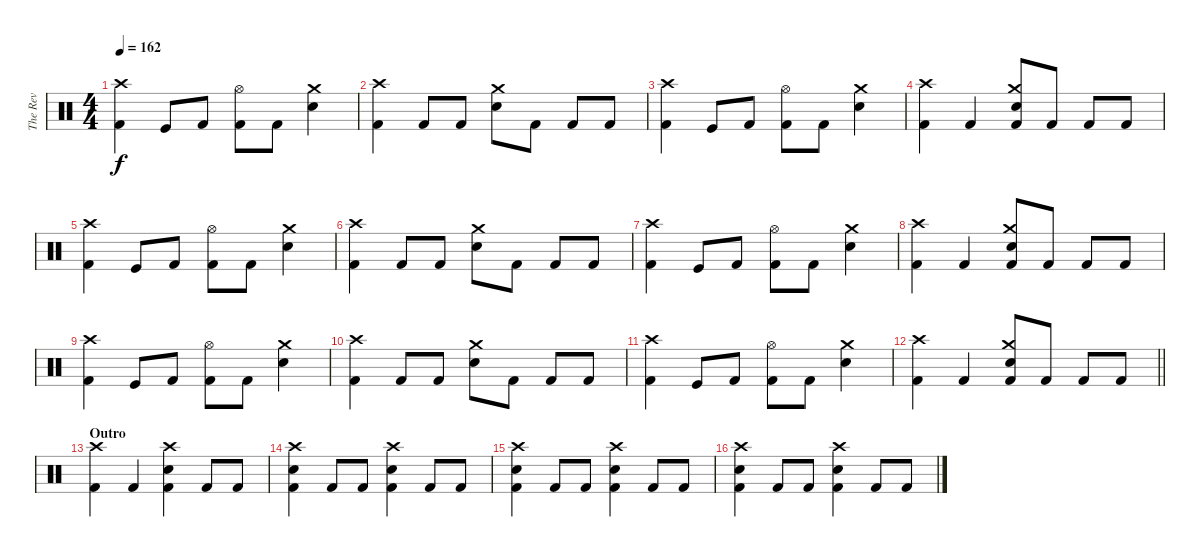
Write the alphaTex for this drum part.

\track ("The Rev" "The Rev") {instrument percussion}
\staff {score}
\articulation defaults
\ts (4 4)
\tempo 162
\clef neutral
\ks c
("Crash high (hit)" "Kick (hit) 2").4{dy f} "Kick (hit)".8 "Kick (hit) 2".8 ("Hi-Hat (open)" "Kick (hit) 2").8 "Kick (hit) 2".8 ("Crash medium (hit)" "Electric Snare (hit)").4 |
("Crash high (hit)" "Kick (hit) 2").4 "Kick (hit) 2".8 "Kick (hit) 2".8 ("Crash medium (hit)" "Electric Snare (hit)").8 "Kick (hit) 2".8 "Kick (hit) 2".8 "Kick (hit) 2".8 |
("Crash high (hit)" "Kick (hit) 2").4 "Kick (hit)".8 "Kick (hit) 2".8 ("Hi-Hat (open)" "Kick (hit) 2").8 "Kick (hit) 2".8 ("Crash medium (hit)" "Electric Snare (hit)").4 |
("Crash high (hit)" "Kick (hit) 2").4 "Kick (hit) 2".4 ("Crash medium (hit)" "Electric Snare (hit)" "Kick (hit) 2").8 "Kick (hit) 2".8 "Kick (hit) 2".8 "Kick (hit) 2".8 |
("Crash high (hit)" "Kick (hit) 2").4 "Kick (hit)".8 "Kick (hit) 2".8 ("Hi-Hat (open)" "Kick (hit) 2").8 "Kick (hit) 2".8 ("Crash medium (hit)" "Electric Snare (hit)").4 |
("Crash high (hit)" "Kick (hit) 2").4 "Kick (hit) 2".8 "Kick (hit) 2".8 ("Crash medium (hit)" "Electric Snare (hit)").8 "Kick (hit) 2".8 "Kick (hit) 2".8 "Kick (hit) 2".8 |
("Crash high (hit)" "Kick (hit) 2").4 "Kick (hit)".8 "Kick (hit) 2".8 ("Hi-Hat (open)" "Kick (hit) 2").8 "Kick (hit) 2".8 ("Crash medium (hit)" "Electric Snare (hit)").4 |
("Crash high (hit)" "Kick (hit) 2").4 "Kick (hit) 2".4 ("Crash medium (hit)" "Electric Snare (hit)" "Kick (hit) 2").8 "Kick (hit) 2".8 "Kick (hit) 2".8 "Kick (hit) 2".8 |
("Crash high (hit)" "Kick (hit) 2").4 "Kick (hit)".8 "Kick (hit) 2".8 ("Hi-Hat (open)" "Kick (hit) 2").8 "Kick (hit) 2".8 ("Crash medium (hit)" "Electric Snare (hit)").4 |
("Crash high (hit)" "Kick (hit) 2").4 "Kick (hit) 2".8 "Kick (hit) 2".8 ("Crash medium (hit)" "Electric Snare (hit)").8 "Kick (hit) 2".8 "Kick (hit) 2".8 "Kick (hit) 2".8 |
("Crash high (hit)" "Kick (hit) 2").4 "Kick (hit)".8 "Kick (hit) 2".8 ("Hi-Hat (open)" "Kick (hit) 2").8 "Kick (hit) 2".8 ("Crash medium (hit)" "Electric Snare (hit)").4 |
\barLineRight lightlight
("Crash high (hit)" "Kick (hit) 2").4 "Kick (hit) 2".4 ("Crash medium (hit)" "Electric Snare (hit)" "Kick (hit) 2").8 "Kick (hit) 2".8 "Kick (hit) 2".8 "Kick (hit) 2".8 |
\section ("" "Outro")
("Crash high (hit)" "Kick (hit) 2").4 "Kick (hit) 2".4 ("Crash high (hit)" "Electric Snare (hit)" "Kick (hit) 2").4 "Kick (hit) 2".8 "Kick (hit) 2".8 |
("Crash high (hit)" "Electric Snare (hit)" "Kick (hit) 2").4 "Kick (hit) 2".8 "Kick (hit) 2".8 ("Crash high (hit)" "Electric Snare (hit)" "Kick (hit) 2").4 "Kick (hit) 2".8 "Kick (hit) 2".8 |
("Crash high (hit)" "Electric Snare (hit)" "Kick (hit) 2").4 "Kick (hit) 2".8 "Kick (hit) 2".8 ("Crash high (hit)" "Electric Snare (hit)" "Kick (hit) 2").4 "Kick (hit) 2".8 "Kick (hit) 2".8 |
("Crash high (hit)" "Electric Snare (hit)" "Kick (hit) 2").4 "Kick (hit) 2".8 "Kick (hit) 2".8 ("Crash high (hit)" "Electric Snare (hit)" "Kick (hit) 2").4 "Kick (hit) 2".8 "Kick (hit) 2".8
